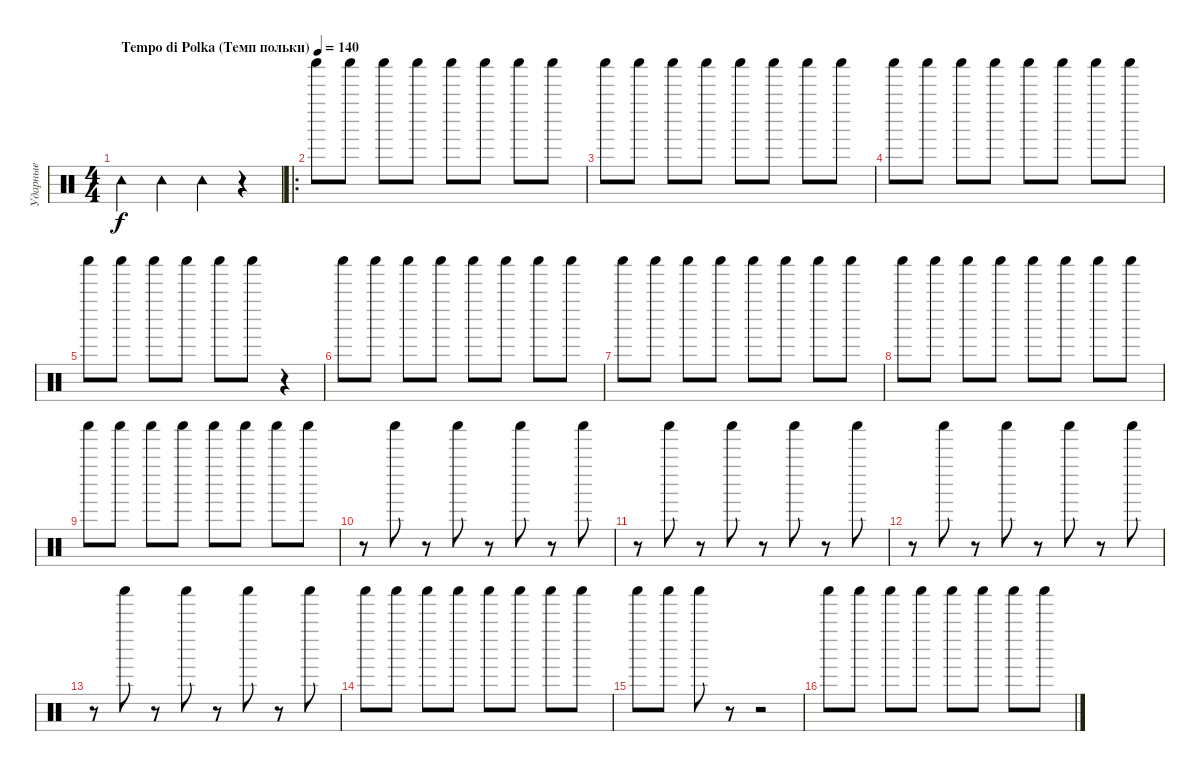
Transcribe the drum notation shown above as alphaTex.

\track ("Ударные" "Ударные") {instrument percussion}
\staff {score}
\articulation defaults
\ts (4 4)
\tempo (140 "Tempo di Polka (Темп польки)")
\clef neutral
\ks c "Tambourine (hit)".4{dy f} "Tambourine (hit)".4 "Tambourine (hit)".4
r.4 |
\ro "Shaker (hit)".8 "Shaker (hit)".8 "Shaker (hit)".8 "Shaker (hit)".8 "Shaker (hit)".8 "Shaker (hit)".8 "Shaker (hit)".8 "Shaker (hit)".8
|
"Shaker (hit)".8 "Shaker (hit)".8 "Shaker (hit)".8 "Shaker (hit)".8 "Shaker (hit)".8 "Shaker (hit)".8 "Shaker (hit)".8 "Shaker (hit)".8 |
"Shaker (hit)".8 "Shaker (hit)".8 "Shaker (hit)".8 "Shaker (hit)".8 "Shaker (hit)".8 "Shaker (hit)".8 "Shaker (hit)".8 "Shaker (hit)".8 |
"Shaker (hit)".8 "Shaker (hit)".8 "Shaker (hit)".8 "Shaker (hit)".8 "Shaker (hit)".8 "Shaker (hit)".8 r.4 |
"Shaker (hit)".8 "Shaker (hit)".8 "Shaker (hit)".8 "Shaker (hit)".8 "Shaker (hit)".8 "Shaker (hit)".8 "Shaker (hit)".8 "Shaker (hit)".8 |
"Shaker (hit)".8 "Shaker (hit)".8 "Shaker (hit)".8 "Shaker (hit)".8 "Shaker (hit)".8 "Shaker (hit)".8 "Shaker (hit)".8 "Shaker (hit)".8 |
"Shaker (hit)".8 "Shaker (hit)".8 "Shaker (hit)".8 "Shaker (hit)".8 "Shaker (hit)".8 "Shaker (hit)".8 "Shaker (hit)".8 "Shaker (hit)".8 |
"Shaker (hit)".8 "Shaker (hit)".8 "Shaker (hit)".8 "Shaker (hit)".8 "Shaker (hit)".8 "Shaker (hit)".8 "Shaker (hit)".8 "Shaker (hit)".8 |
r.8 "Shaker (hit)".8 r.8 "Shaker (hit)".8 r.8 "Shaker (hit)".8 r.8 "Shaker (hit)".8 |
r.8 "Shaker (hit)".8 r.8 "Shaker (hit)".8 r.8 "Shaker (hit)".8 r.8 "Shaker (hit)".8 |
r.8 "Shaker (hit)".8 r.8 "Shaker (hit)".8 r.8 "Shaker (hit)".8 r.8 "Shaker (hit)".8 |
r.8 "Shaker (hit)".8 r.8 "Shaker (hit)".8 r.8 "Shaker (hit)".8 r.8 "Shaker (hit)".8 |
"Shaker (hit)".8 "Shaker (hit)".8 "Shaker (hit)".8 "Shaker (hit)".8 "Shaker (hit)".8 "Shaker (hit)".8 "Shaker (hit)".8 "Shaker (hit)".8 |
"Shaker (hit)".8 "Shaker (hit)".8 "Shaker (hit)".8 r.8 r.2 |
"Shaker (hit)".8 "Shaker (hit)".8 "Shaker (hit)".8 "Shaker (hit)".8 "Shaker (hit)".8 "Shaker (hit)".8 "Shaker (hit)".8 "Shaker (hit)".8
